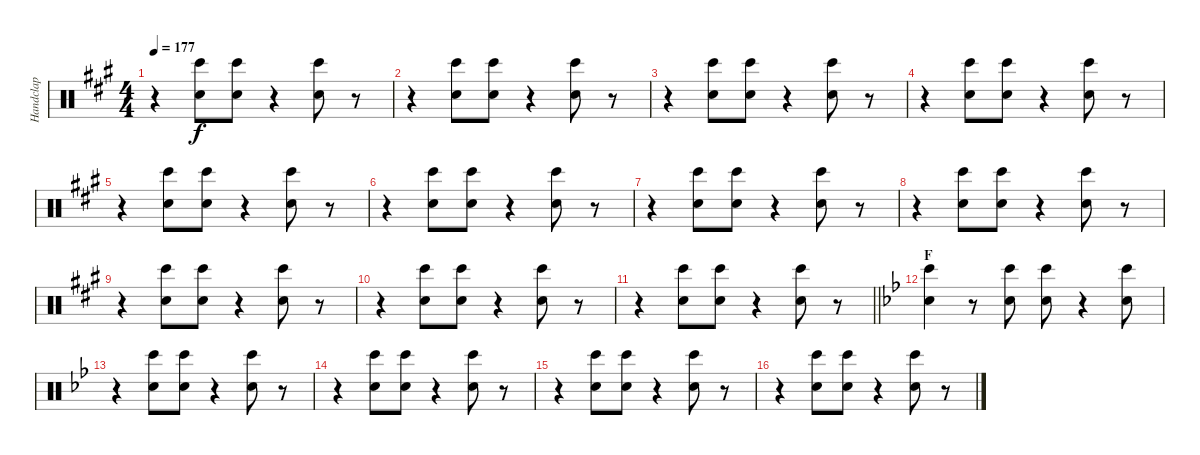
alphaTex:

\track ("Handclap" "Handclap") {instrument percussion}
\staff {score}
\articulation defaults
\ts (4 4)
\tempo 177
\clef neutral
\ks a
r.4{dy f} ("Hand Clap (hit)" "Bongo High (hit)").8 ("Hand Clap (hit)" "Bongo High (hit)").8 r.4 ("Hand Clap (hit)" "Bongo High (hit)").8 r.8 |
r.4 ("Hand Clap (hit)" "Bongo High (hit)").8 ("Hand Clap (hit)" "Bongo High (hit)").8 r.4 ("Hand Clap (hit)" "Bongo High (hit)").8 r.8 |
r.4 ("Hand Clap (hit)" "Bongo High (hit)").8 ("Hand Clap (hit)" "Bongo High (hit)").8 r.4 ("Hand Clap (hit)" "Bongo High (hit)").8 r.8 |
r.4 ("Hand Clap (hit)" "Bongo High (hit)").8 ("Hand Clap (hit)" "Bongo High (hit)").8 r.4 ("Hand Clap (hit)" "Bongo High (hit)").8 r.8 |
r.4 ("Hand Clap (hit)" "Bongo High (hit)").8 ("Hand Clap (hit)" "Bongo High (hit)").8 r.4 ("Hand Clap (hit)" "Bongo High (hit)").8 r.8 |
r.4 ("Hand Clap (hit)" "Bongo High (hit)").8 ("Hand Clap (hit)" "Bongo High (hit)").8 r.4 ("Hand Clap (hit)" "Bongo High (hit)").8 r.8 |
r.4 ("Hand Clap (hit)" "Bongo High (hit)").8 ("Hand Clap (hit)" "Bongo High (hit)").8 r.4 ("Hand Clap (hit)" "Bongo High (hit)").8 r.8 |
r.4 ("Hand Clap (hit)" "Bongo High (hit)").8 ("Hand Clap (hit)" "Bongo High (hit)").8 r.4 ("Hand Clap (hit)" "Bongo High (hit)").8 r.8 |
r.4 ("Hand Clap (hit)" "Bongo High (hit)").8 ("Hand Clap (hit)" "Bongo High (hit)").8 r.4 ("Hand Clap (hit)" "Bongo High (hit)").8 r.8 |
r.4 ("Hand Clap (hit)" "Bongo High (hit)").8 ("Hand Clap (hit)" "Bongo High (hit)").8 r.4 ("Hand Clap (hit)" "Bongo High (hit)").8 r.8 |
\barLineRight lightlight
r.4 ("Hand Clap (hit)" "Bongo High (hit)").8 ("Hand Clap (hit)" "Bongo High (hit)").8 r.4 ("Hand Clap (hit)" "Bongo High (hit)").8 r.8 |
\section ("" "F")
\ks bb
("Hand Clap (hit)" "Bongo High (hit)").4 r.8 ("Hand Clap (hit)" "Bongo High (hit)").8 ("Hand Clap (hit)" "Bongo High (hit)").8 r.4 ("Hand Clap (hit)" "Bongo High (hit)").8 |
r.4 ("Hand Clap (hit)" "Bongo High (hit)").8 ("Hand Clap (hit)" "Bongo High (hit)").8 r.4 ("Hand Clap (hit)" "Bongo High (hit)").8 r.8 |
r.4 ("Hand Clap (hit)" "Bongo High (hit)").8 ("Hand Clap (hit)" "Bongo High (hit)").8 r.4 ("Hand Clap (hit)" "Bongo High (hit)").8 r.8 |
r.4 ("Hand Clap (hit)" "Bongo High (hit)").8 ("Hand Clap (hit)" "Bongo High (hit)").8 r.4 ("Hand Clap (hit)" "Bongo High (hit)").8 r.8 |
r.4 ("Hand Clap (hit)" "Bongo High (hit)").8 ("Hand Clap (hit)" "Bongo High (hit)").8 r.4 ("Hand Clap (hit)" "Bongo High (hit)").8 r.8
